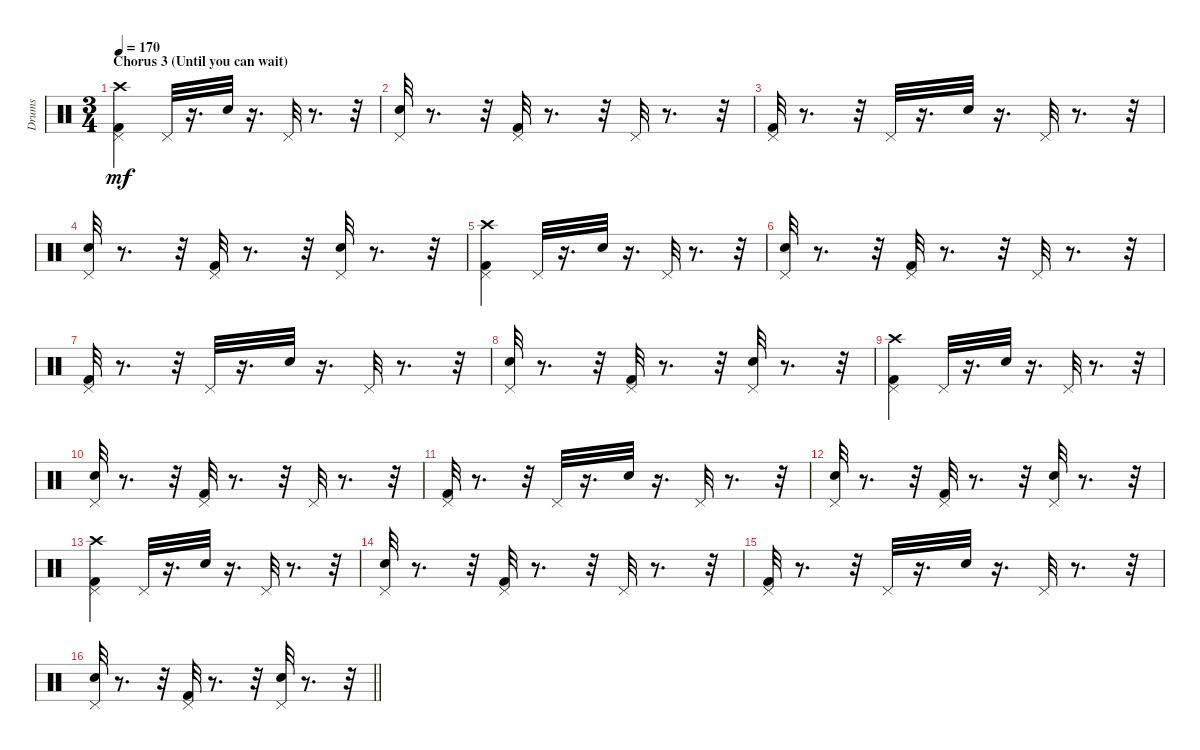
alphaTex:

\track ("Drums" "Drums") {instrument percussion}
\staff {score}
\articulation defaults
\ts (3 4)
\section ("" "Chorus 3 (Until you can wait)")
\tempo 170
\clef neutral
\ks c
("Kick (hit) 2" "Pedal Hi-Hat (hit)" "Crash high (hit)").4{dy mf} "Pedal Hi-Hat (hit)".32 r.16{d} "Snare (hit) 2".32 r.16{d} "Pedal Hi-Hat (hit)".32 r.8{d} r.32 |
("Snare (hit) 2" "Pedal Hi-Hat (hit)").32 r.8{d} r.32 ("Kick (hit) 2" "Pedal Hi-Hat (hit)").32 r.8{d} r.32 "Pedal Hi-Hat (hit)".32 r.8{d} r.32 |
("Kick (hit) 2" "Pedal Hi-Hat (hit)").32 r.8{d} r.32 "Pedal Hi-Hat (hit)".32 r.16{d} "Snare (hit) 2".32 r.16{d} "Pedal Hi-Hat (hit)".32 r.8{d} r.32 |
("Snare (hit) 2" "Pedal Hi-Hat (hit)").32 r.8{d} r.32 ("Kick (hit) 2" "Pedal Hi-Hat (hit)").32 r.8{d} r.32 ("Snare (hit) 2" "Pedal Hi-Hat (hit)").32 r.8{d} r.32 |
("Kick (hit) 2" "Pedal Hi-Hat (hit)" "Crash high (hit)").4 "Pedal Hi-Hat (hit)".32 r.16{d} "Snare (hit) 2".32 r.16{d} "Pedal Hi-Hat (hit)".32 r.8{d} r.32 |
("Snare (hit) 2" "Pedal Hi-Hat (hit)").32 r.8{d} r.32 ("Kick (hit) 2" "Pedal Hi-Hat (hit)").32 r.8{d} r.32 "Pedal Hi-Hat (hit)".32 r.8{d} r.32 |
("Kick (hit) 2" "Pedal Hi-Hat (hit)").32 r.8{d} r.32 "Pedal Hi-Hat (hit)".32 r.16{d} "Snare (hit) 2".32 r.16{d} "Pedal Hi-Hat (hit)".32 r.8{d} r.32 |
("Snare (hit) 2" "Pedal Hi-Hat (hit)").32 r.8{d} r.32 ("Kick (hit) 2" "Pedal Hi-Hat (hit)").32 r.8{d} r.32 ("Snare (hit) 2" "Pedal Hi-Hat (hit)").32 r.8{d} r.32 |
("Kick (hit) 2" "Pedal Hi-Hat (hit)" "Crash high (hit)").4 "Pedal Hi-Hat (hit)".32 r.16{d} "Snare (hit) 2".32 r.16{d} "Pedal Hi-Hat (hit)".32 r.8{d} r.32 |
("Snare (hit) 2" "Pedal Hi-Hat (hit)").32 r.8{d} r.32 ("Kick (hit) 2" "Pedal Hi-Hat (hit)").32 r.8{d} r.32 "Pedal Hi-Hat (hit)".32 r.8{d} r.32 |
("Kick (hit) 2" "Pedal Hi-Hat (hit)").32 r.8{d} r.32 "Pedal Hi-Hat (hit)".32 r.16{d} "Snare (hit) 2".32 r.16{d} "Pedal Hi-Hat (hit)".32 r.8{d} r.32 |
("Snare (hit) 2" "Pedal Hi-Hat (hit)").32 r.8{d} r.32 ("Kick (hit) 2" "Pedal Hi-Hat (hit)").32 r.8{d} r.32 ("Snare (hit) 2" "Pedal Hi-Hat (hit)").32 r.8{d} r.32 |
("Kick (hit) 2" "Pedal Hi-Hat (hit)" "Crash high (hit)").4 "Pedal Hi-Hat (hit)".32 r.16{d} "Snare (hit) 2".32 r.16{d} "Pedal Hi-Hat (hit)".32 r.8{d} r.32 |
("Snare (hit) 2" "Pedal Hi-Hat (hit)").32 r.8{d} r.32 ("Kick (hit) 2" "Pedal Hi-Hat (hit)").32 r.8{d} r.32 "Pedal Hi-Hat (hit)".32 r.8{d} r.32 |
("Kick (hit) 2" "Pedal Hi-Hat (hit)").32 r.8{d} r.32 "Pedal Hi-Hat (hit)".32 r.16{d} "Snare (hit) 2".32 r.16{d} "Pedal Hi-Hat (hit)".32 r.8{d} r.32 |
\barLineRight lightlight
("Snare (hit) 2" "Pedal Hi-Hat (hit)").32 r.8{d} r.32 ("Kick (hit) 2" "Pedal Hi-Hat (hit)").32 r.8{d} r.32 ("Snare (hit) 2" "Pedal Hi-Hat (hit)").32 r.8{d} r.32
